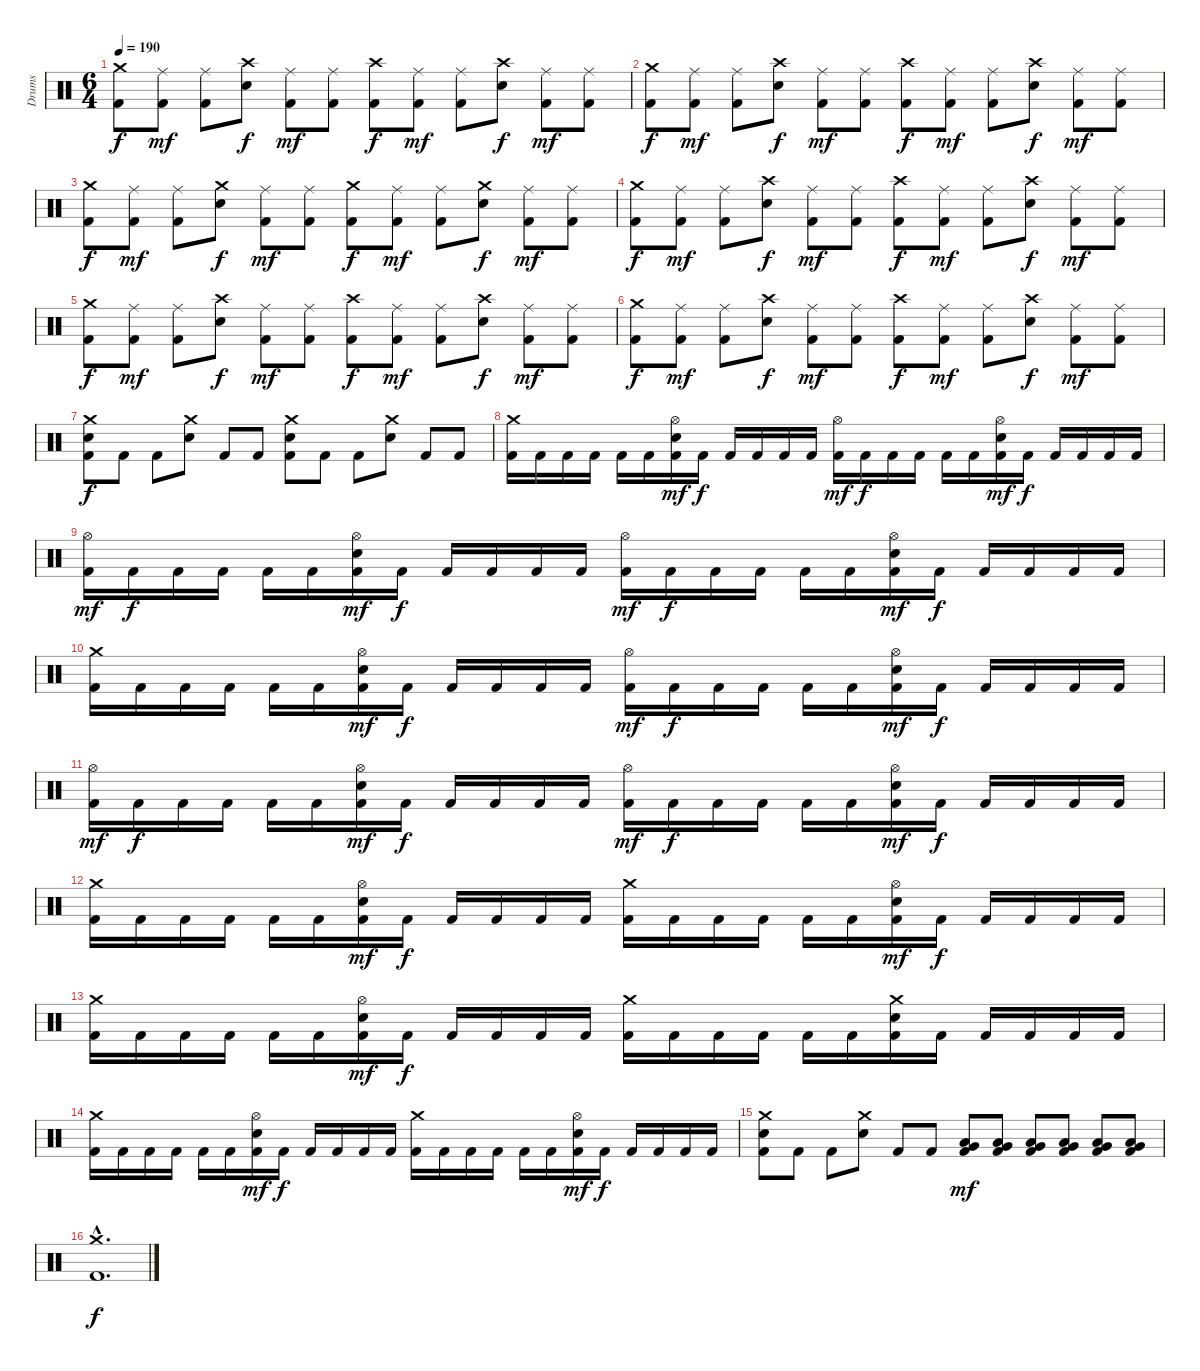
\track ("Drums" "Drums") {instrument percussion}
\staff {score}
\articulation defaults
\ts (6 4)
\tempo 190
\clef neutral
\ks c
("Crash medium (hit)" "Kick (hit) 2").8{dy f} ("Ride (middle)" "Kick (hit) 2").8{dy mf} ("Ride (middle)" "Kick (hit) 2").8 ("Crash high (hit)" "Snare (hit) 2").8{dy f} ("Ride (middle)" "Kick (hit) 2").8{dy mf} ("Ride (middle)" "Kick (hit) 2").8 ("Crash high (hit)" "Kick (hit) 2").8{dy f} ("Ride (middle)" "Kick (hit) 2").8{dy mf} ("Ride (middle)" "Kick (hit) 2").8 ("Crash high (hit)" "Snare (hit) 2").8{dy f} ("Ride (middle)" "Kick (hit) 2").8{dy mf} ("Ride (middle)" "Kick (hit) 2").8 |
("Crash medium (hit)" "Kick (hit) 2").8{dy f} ("Ride (middle)" "Kick (hit) 2").8{dy mf} ("Ride (middle)" "Kick (hit) 2").8 ("Crash high (hit)" "Snare (hit) 2").8{dy f} ("Ride (middle)" "Kick (hit) 2").8{dy mf} ("Ride (middle)" "Kick (hit) 2").8 ("Crash high (hit)" "Kick (hit) 2").8{dy f} ("Ride (middle)" "Kick (hit) 2").8{dy mf} ("Ride (middle)" "Kick (hit) 2").8 ("Crash high (hit)" "Snare (hit) 2").8{dy f} ("Ride (middle)" "Kick (hit) 2").8{dy mf} ("Ride (middle)" "Kick (hit) 2").8 |
("Crash medium (hit)" "Kick (hit) 2").8{dy f} ("Ride (middle)" "Kick (hit) 2").8{dy mf} ("Ride (middle)" "Kick (hit) 2").8 ("Crash medium (hit)" "Snare (hit) 2").8{dy f} ("Ride (middle)" "Kick (hit) 2").8{dy mf} ("Ride (middle)" "Kick (hit) 2").8 ("Crash medium (hit)" "Kick (hit) 2").8{dy f} ("Ride (middle)" "Kick (hit) 2").8{dy mf} ("Ride (middle)" "Kick (hit) 2").8 ("Crash medium (hit)" "Snare (hit) 2").8{dy f} ("Ride (middle)" "Kick (hit) 2").8{dy mf} ("Ride (middle)" "Kick (hit) 2").8 |
("Crash medium (hit)" "Kick (hit) 2").8{dy f} ("Ride (middle)" "Kick (hit) 2").8{dy mf} ("Ride (middle)" "Kick (hit) 2").8 ("Crash high (hit)" "Snare (hit) 2").8{dy f} ("Ride (middle)" "Kick (hit) 2").8{dy mf} ("Ride (middle)" "Kick (hit) 2").8 ("Crash high (hit)" "Kick (hit) 2").8{dy f} ("Ride (middle)" "Kick (hit) 2").8{dy mf} ("Ride (middle)" "Kick (hit) 2").8 ("Crash high (hit)" "Snare (hit) 2").8{dy f} ("Ride (middle)" "Kick (hit) 2").8{dy mf} ("Ride (middle)" "Kick (hit) 2").8 |
("Crash medium (hit)" "Kick (hit) 2").8{dy f} ("Ride (middle)" "Kick (hit) 2").8{dy mf} ("Ride (middle)" "Kick (hit) 2").8 ("Crash high (hit)" "Snare (hit) 2").8{dy f} ("Ride (middle)" "Kick (hit) 2").8{dy mf} ("Ride (middle)" "Kick (hit) 2").8 ("Crash high (hit)" "Kick (hit) 2").8{dy f} ("Ride (middle)" "Kick (hit) 2").8{dy mf} ("Ride (middle)" "Kick (hit) 2").8 ("Crash high (hit)" "Snare (hit) 2").8{dy f} ("Ride (middle)" "Kick (hit) 2").8{dy mf} ("Ride (middle)" "Kick (hit) 2").8 |
("Crash medium (hit)" "Kick (hit) 2").8{dy f} ("Ride (middle)" "Kick (hit) 2").8{dy mf} ("Ride (middle)" "Kick (hit) 2").8 ("Crash high (hit)" "Snare (hit) 2").8{dy f} ("Ride (middle)" "Kick (hit) 2").8{dy mf} ("Ride (middle)" "Kick (hit) 2").8 ("Crash high (hit)" "Kick (hit) 2").8{dy f} ("Ride (middle)" "Kick (hit) 2").8{dy mf} ("Ride (middle)" "Kick (hit) 2").8 ("Crash high (hit)" "Snare (hit) 2").8{dy f} ("Ride (middle)" "Kick (hit) 2").8{dy mf} ("Ride (middle)" "Kick (hit) 2").8 |
("Crash medium (hit)" "Snare (hit) 2" "Kick (hit) 2").8{dy f} "Kick (hit) 2".8 "Kick (hit) 2".8 ("Crash medium (hit)" "Snare (hit) 2").8 "Kick (hit) 2".8 "Kick (hit) 2".8 ("Crash medium (hit)" "Snare (hit) 2" "Kick (hit) 2").8 "Kick (hit) 2".8 "Kick (hit) 2".8 ("Crash medium (hit)" "Snare (hit) 2").8 "Kick (hit) 2".8 "Kick (hit) 2".8 |
("Crash medium (hit)" "Kick (hit) 2").16 "Kick (hit) 2".16 "Kick (hit) 2".16 "Kick (hit) 2".16 "Kick (hit) 2".16 "Kick (hit) 2".16 ("Hi-Hat (open)" "Snare (hit) 2" "Kick (hit) 2").16{dy mf} "Kick (hit) 2".16{dy f} "Kick (hit) 2".16 "Kick (hit) 2".16 "Kick (hit) 2".16 "Kick (hit) 2".16 ("Hi-Hat (open)" "Kick (hit) 2").16{dy mf} "Kick (hit) 2".16{dy f} "Kick (hit) 2".16 "Kick (hit) 2".16 "Kick (hit) 2".16 "Kick (hit) 2".16 ("Hi-Hat (open)" "Snare (hit) 2" "Kick (hit) 2").16{dy mf} "Kick (hit) 2".16{dy f} "Kick (hit) 2".16 "Kick (hit) 2".16 "Kick (hit) 2".16 "Kick (hit) 2".16 |
("Hi-Hat (open)" "Kick (hit) 2").16{dy mf} "Kick (hit) 2".16{dy f} "Kick (hit) 2".16 "Kick (hit) 2".16 "Kick (hit) 2".16 "Kick (hit) 2".16 ("Hi-Hat (open)" "Snare (hit) 2" "Kick (hit) 2").16{dy mf} "Kick (hit) 2".16{dy f} "Kick (hit) 2".16 "Kick (hit) 2".16 "Kick (hit) 2".16 "Kick (hit) 2".16 ("Hi-Hat (open)" "Kick (hit) 2").16{dy mf} "Kick (hit) 2".16{dy f} "Kick (hit) 2".16 "Kick (hit) 2".16 "Kick (hit) 2".16 "Kick (hit) 2".16 ("Hi-Hat (open)" "Snare (hit) 2" "Kick (hit) 2").16{dy mf} "Kick (hit) 2".16{dy f} "Kick (hit) 2".16 "Kick (hit) 2".16 "Kick (hit) 2".16 "Kick (hit) 2".16 |
("Crash medium (hit)" "Kick (hit) 2").16 "Kick (hit) 2".16 "Kick (hit) 2".16 "Kick (hit) 2".16 "Kick (hit) 2".16 "Kick (hit) 2".16 ("Hi-Hat (open)" "Snare (hit) 2" "Kick (hit) 2").16{dy mf} "Kick (hit) 2".16{dy f} "Kick (hit) 2".16 "Kick (hit) 2".16 "Kick (hit) 2".16 "Kick (hit) 2".16 ("Hi-Hat (open)" "Kick (hit) 2").16{dy mf} "Kick (hit) 2".16{dy f} "Kick (hit) 2".16 "Kick (hit) 2".16 "Kick (hit) 2".16 "Kick (hit) 2".16 ("Hi-Hat (open)" "Snare (hit) 2" "Kick (hit) 2").16{dy mf} "Kick (hit) 2".16{dy f} "Kick (hit) 2".16 "Kick (hit) 2".16 "Kick (hit) 2".16 "Kick (hit) 2".16 |
("Hi-Hat (open)" "Kick (hit) 2").16{dy mf} "Kick (hit) 2".16{dy f} "Kick (hit) 2".16 "Kick (hit) 2".16 "Kick (hit) 2".16 "Kick (hit) 2".16 ("Hi-Hat (open)" "Snare (hit) 2" "Kick (hit) 2").16{dy mf} "Kick (hit) 2".16{dy f} "Kick (hit) 2".16 "Kick (hit) 2".16 "Kick (hit) 2".16 "Kick (hit) 2".16 ("Hi-Hat (open)" "Kick (hit) 2").16{dy mf} "Kick (hit) 2".16{dy f} "Kick (hit) 2".16 "Kick (hit) 2".16 "Kick (hit) 2".16 "Kick (hit) 2".16 ("Hi-Hat (open)" "Snare (hit) 2" "Kick (hit) 2").16{dy mf} "Kick (hit) 2".16{dy f} "Kick (hit) 2".16 "Kick (hit) 2".16 "Kick (hit) 2".16 "Kick (hit) 2".16 |
("Crash medium (hit)" "Kick (hit) 2").16 "Kick (hit) 2".16 "Kick (hit) 2".16 "Kick (hit) 2".16 "Kick (hit) 2".16 "Kick (hit) 2".16 ("Hi-Hat (open)" "Snare (hit) 2" "Kick (hit) 2").16{dy mf} "Kick (hit) 2".16{dy f} "Kick (hit) 2".16 "Kick (hit) 2".16 "Kick (hit) 2".16 "Kick (hit) 2".16 ("Crash medium (hit)" "Kick (hit) 2").16 "Kick (hit) 2".16 "Kick (hit) 2".16 "Kick (hit) 2".16 "Kick (hit) 2".16 "Kick (hit) 2".16 ("Hi-Hat (open)" "Snare (hit) 2" "Kick (hit) 2").16{dy mf} "Kick (hit) 2".16{dy f} "Kick (hit) 2".16 "Kick (hit) 2".16 "Kick (hit) 2".16 "Kick (hit) 2".16 |
("Crash medium (hit)" "Kick (hit) 2").16 "Kick (hit) 2".16 "Kick (hit) 2".16 "Kick (hit) 2".16 "Kick (hit) 2".16 "Kick (hit) 2".16 ("Hi-Hat (open)" "Snare (hit) 2" "Kick (hit) 2").16{dy mf} "Kick (hit) 2".16{dy f} "Kick (hit) 2".16 "Kick (hit) 2".16 "Kick (hit) 2".16 "Kick (hit) 2".16 ("Crash medium (hit)" "Kick (hit) 2").16 "Kick (hit) 2".16 "Kick (hit) 2".16 "Kick (hit) 2".16 "Kick (hit) 2".16 "Kick (hit) 2".16 ("Crash medium (hit)" "Snare (hit) 2" "Kick (hit) 2").16 "Kick (hit) 2".16 "Kick (hit) 2".16 "Kick (hit) 2".16 "Kick (hit) 2".16 "Kick (hit) 2".16 |
("Crash medium (hit)" "Kick (hit) 2").16 "Kick (hit) 2".16 "Kick (hit) 2".16 "Kick (hit) 2".16 "Kick (hit) 2".16 "Kick (hit) 2".16 ("Hi-Hat (open)" "Snare (hit) 2" "Kick (hit) 2").16{dy mf} "Kick (hit) 2".16{dy f} "Kick (hit) 2".16 "Kick (hit) 2".16 "Kick (hit) 2".16 "Kick (hit) 2".16 ("Crash medium (hit)" "Kick (hit) 2").16 "Kick (hit) 2".16 "Kick (hit) 2".16 "Kick (hit) 2".16 "Kick (hit) 2".16 "Kick (hit) 2".16 ("Hi-Hat (open)" "Snare (hit) 2" "Kick (hit) 2").16{dy mf} "Kick (hit) 2".16{dy f} "Kick (hit) 2".16 "Kick (hit) 2".16 "Kick (hit) 2".16 "Kick (hit) 2".16 |
("Crash medium (hit)" "Snare (hit) 2" "Kick (hit) 2").8 "Kick (hit) 2".8 "Kick (hit) 2".8 ("Crash medium (hit)" "Snare (hit) 2").8 "Kick (hit) 2".8 "Kick (hit) 2".8 ("Very Low Tom (hit)" "Low Floor Tom (hit)" "Kick (hit) 2").8{dy mf} ("Very Low Tom (hit)" "Low Floor Tom (hit)" "Kick (hit) 2").8 ("Very Low Tom (hit)" "Low Floor Tom (hit)" "Kick (hit) 2").8 ("Very Low Tom (hit)" "Low Floor Tom (hit)" "Kick (hit) 2").8 ("Very Low Tom (hit)" "Low Floor Tom (hit)" "Kick (hit) 2").8 ("Very Low Tom (hit)" "Low Floor Tom (hit)" "Kick (hit) 2").8 |
("Crash medium (hit)"{hac} "Kick (hit) 2"{hac}).1{d dy f}
